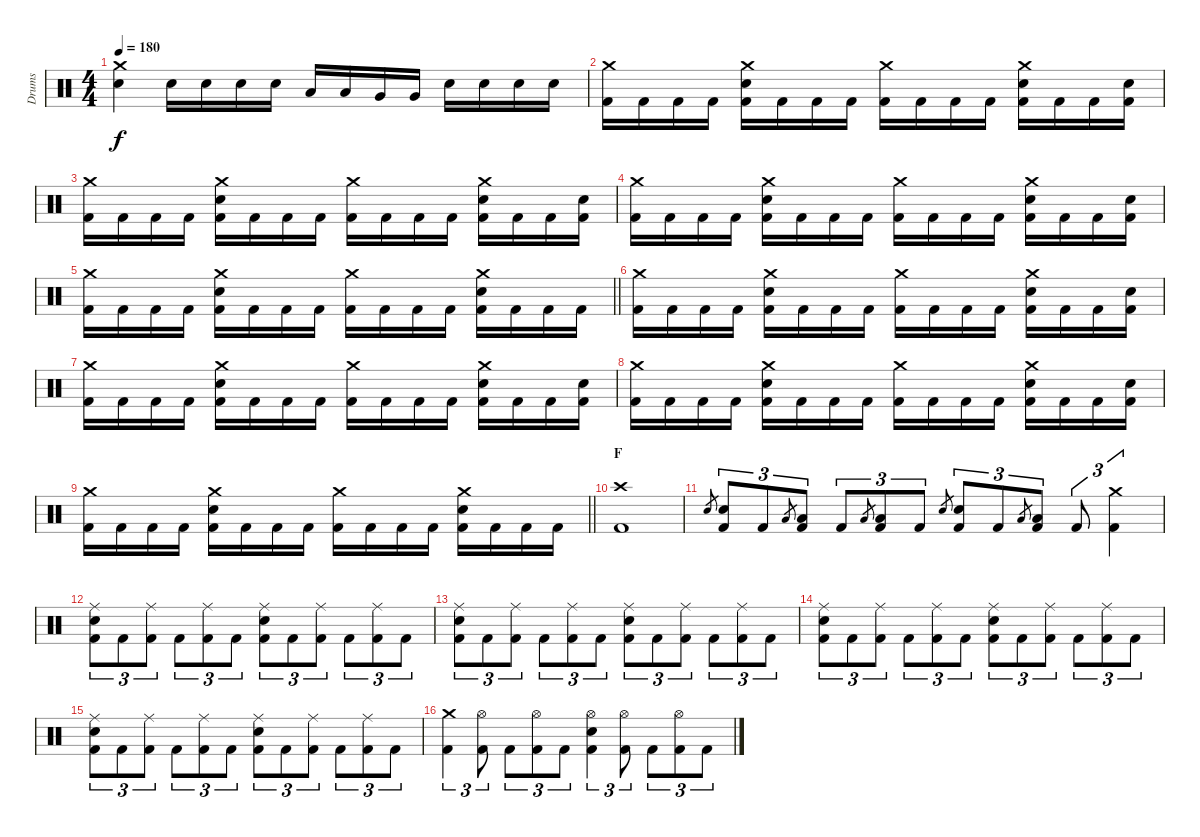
\track ("Drums" "Drums") {instrument percussion}
\staff {score}
\articulation defaults
\ts (4 4)
\tempo 180
\clef neutral
\ks c
("Crash medium (hit)" "Electric Snare (hit)").4{dy f} "Electric Snare (hit)".16 "Electric Snare (hit)".16 "Electric Snare (hit)".16 "Electric Snare (hit)".16 "Low Tom (hit)".16 "Low Tom (hit)".16 "Very Low Tom (hit)".16 "Very Low Tom (hit)".16 "Electric Snare (hit)".16 "Electric Snare (hit)".16 "Electric Snare (hit)".16 "Electric Snare (hit)".16 |
("Crash medium (hit)" "Kick (hit) 2").16 "Kick (hit) 2".16 "Kick (hit) 2".16 "Kick (hit) 2".16 ("Crash medium (hit)" "Electric Snare (hit)" "Kick (hit) 2").16 "Kick (hit) 2".16 "Kick (hit) 2".16 "Kick (hit) 2".16 ("Crash medium (hit)" "Kick (hit) 2").16 "Kick (hit) 2".16 "Kick (hit) 2".16 "Kick (hit) 2".16 ("Crash medium (hit)" "Electric Snare (hit)" "Kick (hit) 2").16 "Kick (hit) 2".16 "Kick (hit) 2".16 ("Electric Snare (hit)" "Kick (hit) 2").16 |
("Crash medium (hit)" "Kick (hit) 2").16 "Kick (hit) 2".16 "Kick (hit) 2".16 "Kick (hit) 2".16 ("Crash medium (hit)" "Electric Snare (hit)" "Kick (hit) 2").16 "Kick (hit) 2".16 "Kick (hit) 2".16 "Kick (hit) 2".16 ("Crash medium (hit)" "Kick (hit) 2").16 "Kick (hit) 2".16 "Kick (hit) 2".16 "Kick (hit) 2".16 ("Crash medium (hit)" "Electric Snare (hit)" "Kick (hit) 2").16 "Kick (hit) 2".16 "Kick (hit) 2".16 ("Electric Snare (hit)" "Kick (hit) 2").16 |
("Crash medium (hit)" "Kick (hit) 2").16 "Kick (hit) 2".16 "Kick (hit) 2".16 "Kick (hit) 2".16 ("Crash medium (hit)" "Electric Snare (hit)" "Kick (hit) 2").16 "Kick (hit) 2".16 "Kick (hit) 2".16 "Kick (hit) 2".16 ("Crash medium (hit)" "Kick (hit) 2").16 "Kick (hit) 2".16 "Kick (hit) 2".16 "Kick (hit) 2".16 ("Crash medium (hit)" "Electric Snare (hit)" "Kick (hit) 2").16 "Kick (hit) 2".16 "Kick (hit) 2".16 ("Electric Snare (hit)" "Kick (hit) 2").16 |
\barLineRight lightlight
("Crash medium (hit)" "Kick (hit) 2").16 "Kick (hit) 2".16 "Kick (hit) 2".16 "Kick (hit) 2".16 ("Crash medium (hit)" "Electric Snare (hit)" "Kick (hit) 2").16 "Kick (hit) 2".16 "Kick (hit) 2".16 "Kick (hit) 2".16 ("Crash medium (hit)" "Kick (hit) 2").16 "Kick (hit) 2".16 "Kick (hit) 2".16 "Kick (hit) 2".16 ("Crash medium (hit)" "Electric Snare (hit)" "Kick (hit) 2").16 "Kick (hit) 2".16 "Kick (hit) 2".16 "Kick (hit) 2".16 |
("Crash medium (hit)" "Kick (hit) 2").16 "Kick (hit) 2".16 "Kick (hit) 2".16 "Kick (hit) 2".16 ("Crash medium (hit)" "Electric Snare (hit)" "Kick (hit) 2").16 "Kick (hit) 2".16 "Kick (hit) 2".16 "Kick (hit) 2".16 ("Crash medium (hit)" "Kick (hit) 2").16 "Kick (hit) 2".16 "Kick (hit) 2".16 "Kick (hit) 2".16 ("Crash medium (hit)" "Electric Snare (hit)" "Kick (hit) 2").16 "Kick (hit) 2".16 "Kick (hit) 2".16 ("Electric Snare (hit)" "Kick (hit) 2").16 |
("Crash medium (hit)" "Kick (hit) 2").16 "Kick (hit) 2".16 "Kick (hit) 2".16 "Kick (hit) 2".16 ("Crash medium (hit)" "Electric Snare (hit)" "Kick (hit) 2").16 "Kick (hit) 2".16 "Kick (hit) 2".16 "Kick (hit) 2".16 ("Crash medium (hit)" "Kick (hit) 2").16 "Kick (hit) 2".16 "Kick (hit) 2".16 "Kick (hit) 2".16 ("Crash medium (hit)" "Electric Snare (hit)" "Kick (hit) 2").16 "Kick (hit) 2".16 "Kick (hit) 2".16 ("Electric Snare (hit)" "Kick (hit) 2").16 |
("Crash medium (hit)" "Kick (hit) 2").16 "Kick (hit) 2".16 "Kick (hit) 2".16 "Kick (hit) 2".16 ("Crash medium (hit)" "Electric Snare (hit)" "Kick (hit) 2").16 "Kick (hit) 2".16 "Kick (hit) 2".16 "Kick (hit) 2".16 ("Crash medium (hit)" "Kick (hit) 2").16 "Kick (hit) 2".16 "Kick (hit) 2".16 "Kick (hit) 2".16 ("Crash medium (hit)" "Electric Snare (hit)" "Kick (hit) 2").16 "Kick (hit) 2".16 "Kick (hit) 2".16 ("Electric Snare (hit)" "Kick (hit) 2").16 |
\barLineRight lightlight
("Crash medium (hit)" "Kick (hit) 2").16 "Kick (hit) 2".16 "Kick (hit) 2".16 "Kick (hit) 2".16 ("Crash medium (hit)" "Electric Snare (hit)" "Kick (hit) 2").16 "Kick (hit) 2".16 "Kick (hit) 2".16 "Kick (hit) 2".16 ("Crash medium (hit)" "Kick (hit) 2").16 "Kick (hit) 2".16 "Kick (hit) 2".16 "Kick (hit) 2".16 ("Crash medium (hit)" "Electric Snare (hit)" "Kick (hit) 2").16 "Kick (hit) 2".16 "Kick (hit) 2".16 "Kick (hit) 2".16 |
\section ("" "F")
("Crash high (hit)" "Kick (hit) 2").1 |
"Electric Snare (hit)".8{gr} ("Electric Snare (hit)" "Kick (hit) 2").8{tu (3 2)} "Kick (hit) 2".8{tu (3 2)} "Low Tom (hit)".8{gr} ("Low Tom (hit)" "Kick (hit) 2").8{tu (3 2)} "Kick (hit) 2".8{tu (3 2)} "Low Tom (hit)".8{gr} ("Low Tom (hit)" "Kick (hit) 2").8{tu (3 2)} "Kick (hit) 2".8{tu (3 2)} "Electric Snare (hit)".8{gr} ("Electric Snare (hit)" "Kick (hit) 2").8{tu (3 2)} "Kick (hit) 2".8{tu (3 2)} "Low Tom (hit)".8{gr} ("Low Tom (hit)" "Kick (hit) 2").8{tu (3 2)} "Kick (hit) 2".8{tu (3 2)} ("Crash medium (hit)" "Kick (hit) 2").4{tu (3 2)} |
("Ride (middle)" "Electric Snare (hit)" "Kick (hit) 2").8{tu (3 2)} "Kick (hit) 2".8{tu (3 2)} ("Ride (middle)" "Kick (hit) 2").8{tu (3 2)} "Kick (hit) 2".8{tu (3 2)} ("Ride (middle)" "Kick (hit) 2").8{tu (3 2)} "Kick (hit) 2".8{tu (3 2)} ("Ride (middle)" "Electric Snare (hit)" "Kick (hit) 2").8{tu (3 2)} "Kick (hit) 2".8{tu (3 2)} ("Ride (middle)" "Kick (hit) 2").8{tu (3 2)} "Kick (hit) 2".8{tu (3 2)} ("Ride (middle)" "Kick (hit) 2").8{tu (3 2)} "Kick (hit) 2".8{tu (3 2)} |
("Ride (middle)" "Electric Snare (hit)" "Kick (hit) 2").8{tu (3 2)} "Kick (hit) 2".8{tu (3 2)} ("Ride (middle)" "Kick (hit) 2").8{tu (3 2)} "Kick (hit) 2".8{tu (3 2)} ("Ride (middle)" "Kick (hit) 2").8{tu (3 2)} "Kick (hit) 2".8{tu (3 2)} ("Ride (middle)" "Electric Snare (hit)" "Kick (hit) 2").8{tu (3 2)} "Kick (hit) 2".8{tu (3 2)} ("Ride (middle)" "Kick (hit) 2").8{tu (3 2)} "Kick (hit) 2".8{tu (3 2)} ("Ride (middle)" "Kick (hit) 2").8{tu (3 2)} "Kick (hit) 2".8{tu (3 2)} |
("Ride (middle)" "Electric Snare (hit)" "Kick (hit) 2").8{tu (3 2)} "Kick (hit) 2".8{tu (3 2)} ("Ride (middle)" "Kick (hit) 2").8{tu (3 2)} "Kick (hit) 2".8{tu (3 2)} ("Ride (middle)" "Kick (hit) 2").8{tu (3 2)} "Kick (hit) 2".8{tu (3 2)} ("Ride (middle)" "Electric Snare (hit)" "Kick (hit) 2").8{tu (3 2)} "Kick (hit) 2".8{tu (3 2)} ("Ride (middle)" "Kick (hit) 2").8{tu (3 2)} "Kick (hit) 2".8{tu (3 2)} ("Ride (middle)" "Kick (hit) 2").8{tu (3 2)} "Kick (hit) 2".8{tu (3 2)} |
("Ride (middle)" "Electric Snare (hit)" "Kick (hit) 2").8{tu (3 2)} "Kick (hit) 2".8{tu (3 2)} ("Ride (middle)" "Kick (hit) 2").8{tu (3 2)} "Kick (hit) 2".8{tu (3 2)} ("Ride (middle)" "Kick (hit) 2").8{tu (3 2)} "Kick (hit) 2".8{tu (3 2)} ("Ride (middle)" "Electric Snare (hit)" "Kick (hit) 2").8{tu (3 2)} "Kick (hit) 2".8{tu (3 2)} ("Ride (middle)" "Kick (hit) 2").8{tu (3 2)} "Kick (hit) 2".8{tu (3 2)} ("Ride (middle)" "Kick (hit) 2").8{tu (3 2)} "Kick (hit) 2".8{tu (3 2)} |
("Crash medium (hit)" "Kick (hit) 2").4{tu (3 2)} ("Hi-Hat (open)" "Kick (hit) 2").8{tu (3 2)} "Kick (hit) 2".8{tu (3 2)} ("Hi-Hat (open)" "Kick (hit) 2").8{tu (3 2)} "Kick (hit) 2".8{tu (3 2)} ("Hi-Hat (open)" "Electric Snare (hit)" "Kick (hit) 2").4{tu (3 2)} ("Hi-Hat (open)" "Kick (hit) 2").8{tu (3 2)} "Kick (hit) 2".8{tu (3 2)} ("Hi-Hat (open)" "Kick (hit) 2").8{tu (3 2)} "Kick (hit) 2".8{tu (3 2)}
